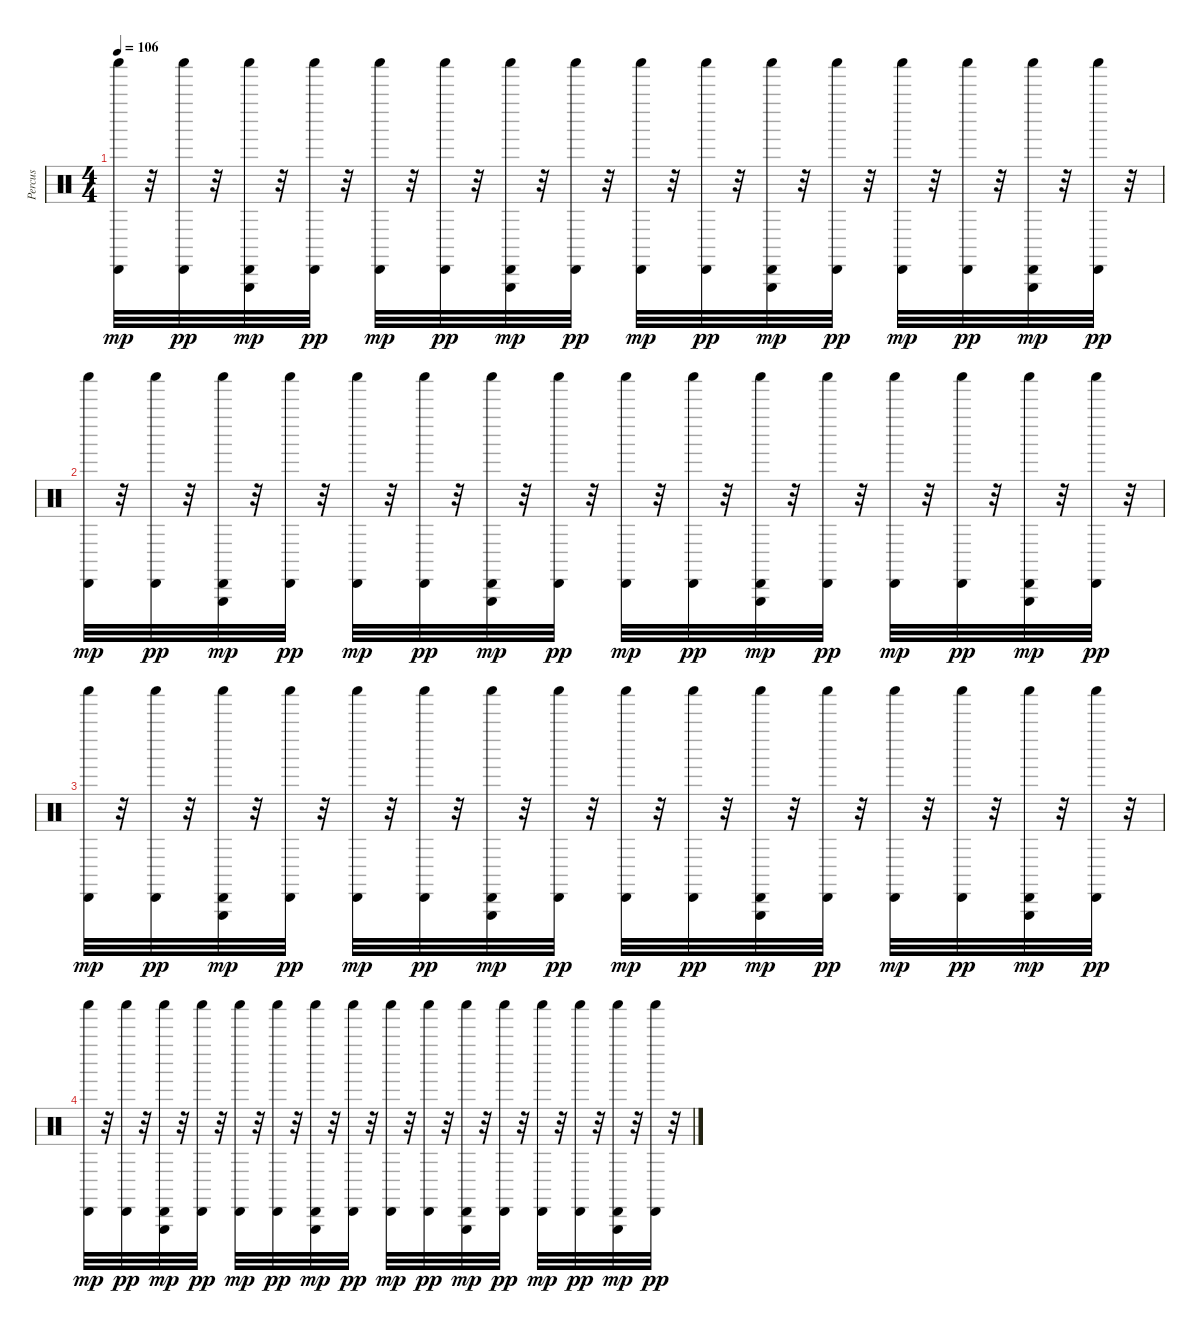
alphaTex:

\track ("Percus" "Percus") {instrument percussion}
\staff {score}
\articulation defaults
\ts (4 4)
\tempo 106
\clef neutral
\ks c
("Shaker (hit)" "Cabasa (hit)").32{dy mp} r.32 ("Shaker (hit)" "Cabasa (hit)").32{dy pp} r.32 ("Shaker (hit)" "Triangle (hit)" "Cabasa (hit)").32{dy mp} r.32 ("Shaker (hit)" "Cabasa (hit)").32{dy pp} r.32 ("Shaker (hit)" "Cabasa (hit)").32{dy mp} r.32 ("Shaker (hit)" "Cabasa (hit)").32{dy pp} r.32 ("Shaker (hit)" "Triangle (hit)" "Cabasa (hit)").32{dy mp} r.32 ("Shaker (hit)" "Cabasa (hit)").32{dy pp} r.32 ("Shaker (hit)" "Cabasa (hit)").32{dy mp} r.32 ("Shaker (hit)" "Cabasa (hit)").32{dy pp} r.32 ("Shaker (hit)" "Triangle (hit)" "Cabasa (hit)").32{dy mp} r.32 ("Shaker (hit)" "Cabasa (hit)").32{dy pp} r.32 ("Shaker (hit)" "Cabasa (hit)").32{dy mp} r.32 ("Shaker (hit)" "Cabasa (hit)").32{dy pp} r.32 ("Shaker (hit)" "Triangle (hit)" "Cabasa (hit)").32{dy mp} r.32 ("Shaker (hit)" "Cabasa (hit)").32{dy pp} r.32 |
("Shaker (hit)" "Cabasa (hit)").32{dy mp} r.32 ("Shaker (hit)" "Cabasa (hit)").32{dy pp} r.32 ("Shaker (hit)" "Triangle (hit)" "Cabasa (hit)").32{dy mp} r.32 ("Shaker (hit)" "Cabasa (hit)").32{dy pp} r.32 ("Shaker (hit)" "Cabasa (hit)").32{dy mp} r.32 ("Shaker (hit)" "Cabasa (hit)").32{dy pp} r.32 ("Shaker (hit)" "Triangle (hit)" "Cabasa (hit)").32{dy mp} r.32 ("Shaker (hit)" "Cabasa (hit)").32{dy pp} r.32 ("Shaker (hit)" "Cabasa (hit)").32{dy mp} r.32 ("Shaker (hit)" "Cabasa (hit)").32{dy pp} r.32 ("Shaker (hit)" "Triangle (hit)" "Cabasa (hit)").32{dy mp} r.32 ("Shaker (hit)" "Cabasa (hit)").32{dy pp} r.32 ("Shaker (hit)" "Cabasa (hit)").32{dy mp} r.32 ("Shaker (hit)" "Cabasa (hit)").32{dy pp} r.32 ("Shaker (hit)" "Triangle (hit)" "Cabasa (hit)").32{dy mp} r.32 ("Shaker (hit)" "Cabasa (hit)").32{dy pp} r.32 |
("Shaker (hit)" "Cabasa (hit)").32{dy mp} r.32 ("Shaker (hit)" "Cabasa (hit)").32{dy pp} r.32 ("Shaker (hit)" "Triangle (hit)" "Cabasa (hit)").32{dy mp} r.32 ("Shaker (hit)" "Cabasa (hit)").32{dy pp} r.32 ("Shaker (hit)" "Cabasa (hit)").32{dy mp} r.32 ("Shaker (hit)" "Cabasa (hit)").32{dy pp} r.32 ("Shaker (hit)" "Triangle (hit)" "Cabasa (hit)").32{dy mp} r.32 ("Shaker (hit)" "Cabasa (hit)").32{dy pp} r.32 ("Shaker (hit)" "Cabasa (hit)").32{dy mp} r.32 ("Shaker (hit)" "Cabasa (hit)").32{dy pp} r.32 ("Shaker (hit)" "Triangle (hit)" "Cabasa (hit)").32{dy mp} r.32 ("Shaker (hit)" "Cabasa (hit)").32{dy pp} r.32 ("Shaker (hit)" "Cabasa (hit)").32{dy mp} r.32 ("Shaker (hit)" "Cabasa (hit)").32{dy pp} r.32 ("Shaker (hit)" "Triangle (hit)" "Cabasa (hit)").32{dy mp} r.32 ("Shaker (hit)" "Cabasa (hit)").32{dy pp} r.32 |
("Shaker (hit)" "Cabasa (hit)").32{dy mp} r.32 ("Shaker (hit)" "Cabasa (hit)").32{dy pp} r.32 ("Shaker (hit)" "Triangle (hit)" "Cabasa (hit)").32{dy mp} r.32 ("Shaker (hit)" "Cabasa (hit)").32{dy pp} r.32 ("Shaker (hit)" "Cabasa (hit)").32{dy mp} r.32 ("Shaker (hit)" "Cabasa (hit)").32{dy pp} r.32 ("Shaker (hit)" "Triangle (hit)" "Cabasa (hit)").32{dy mp} r.32 ("Shaker (hit)" "Cabasa (hit)").32{dy pp} r.32 ("Shaker (hit)" "Cabasa (hit)").32{dy mp} r.32 ("Shaker (hit)" "Cabasa (hit)").32{dy pp} r.32 ("Shaker (hit)" "Triangle (hit)" "Cabasa (hit)").32{dy mp} r.32 ("Shaker (hit)" "Cabasa (hit)").32{dy pp} r.32 ("Shaker (hit)" "Cabasa (hit)").32{dy mp} r.32 ("Shaker (hit)" "Cabasa (hit)").32{dy pp} r.32 ("Shaker (hit)" "Triangle (hit)" "Cabasa (hit)").32{dy mp} r.32 ("Shaker (hit)" "Cabasa (hit)").32{dy pp} r.32
